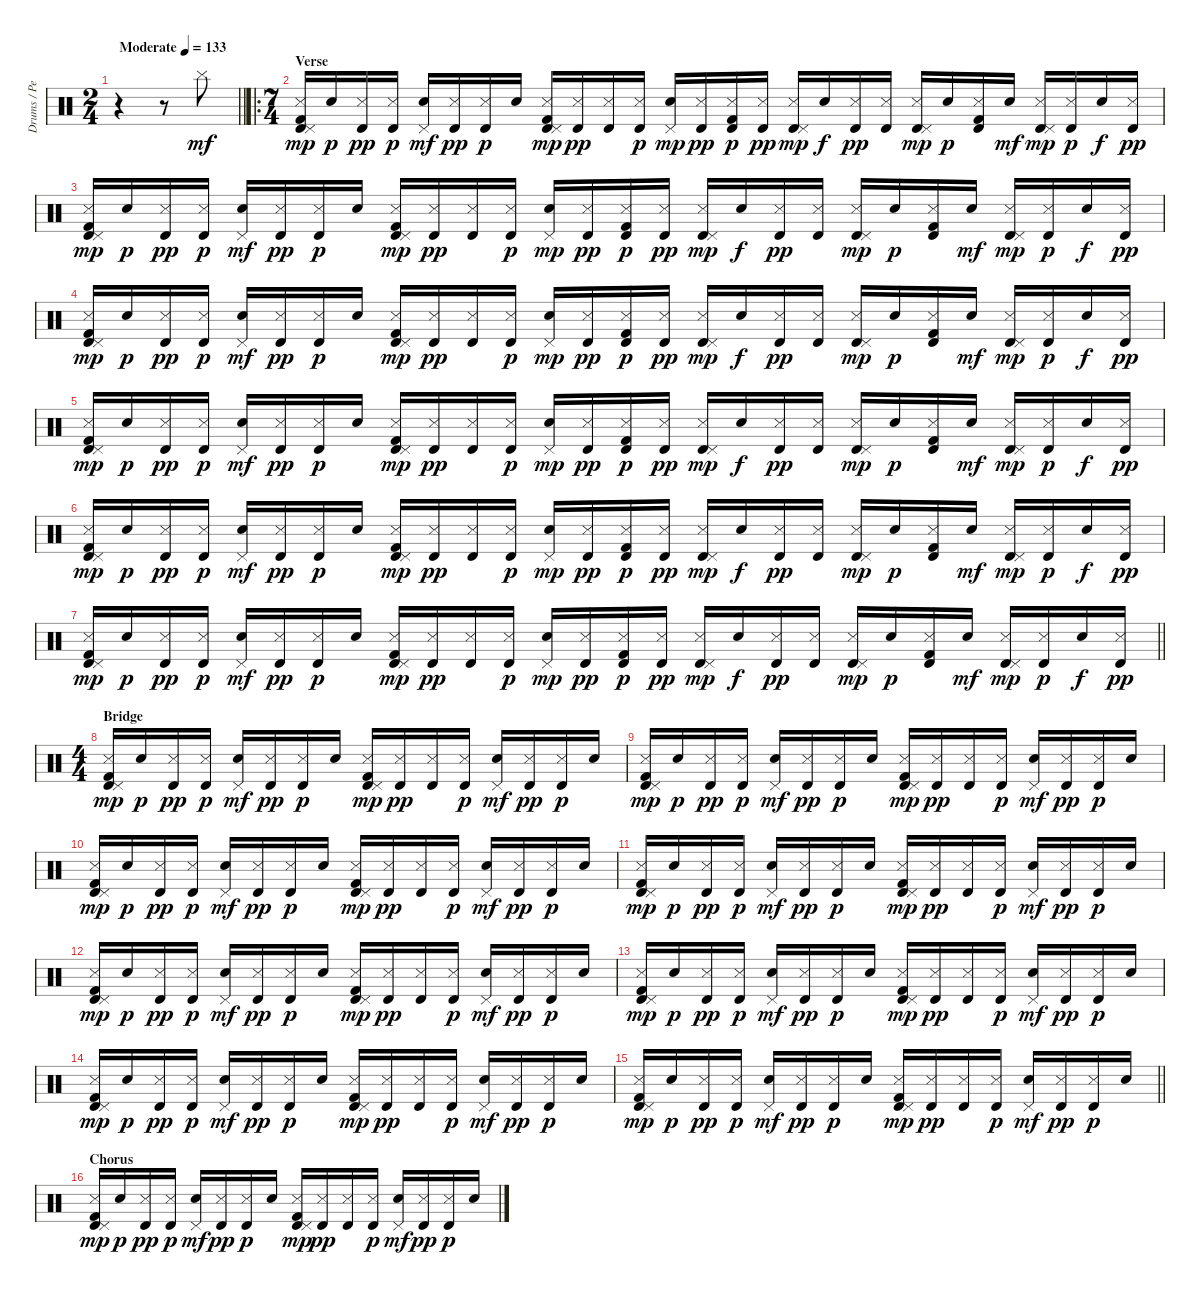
\track ("Drums / Percussions" "Drums / Pe") {instrument percussion}
\staff {score}
\articulation defaults
\ts (2 4)
\tempo (133 "Moderate")
\clef neutral
\barLineRight lightlight
\ks c
r.4{dy mf} r.8 "Cymbal (hit)".8 |
\ro
\ts (7 4)
\section ("" "Verse")
("Snare (side stick) 3" "Timbale high (hit)" "Pedal Hi-Hat (hit)" "Kick (hit) 2").16{dy mp} "Electric Snare (hit)".16{dy p} ("Snare (side stick) 3" "Timbale high (hit)").16{dy pp} ("Snare (side stick) 3" "Timbale high (hit)").16{dy p} ("Pedal Hi-Hat (hit)" "Electric Snare (hit)").16{dy mf} ("Snare (side stick) 3" "Timbale high (hit)").16{dy pp} ("Snare (side stick) 3" "Timbale high (hit)").16{dy p} "Electric Snare (hit)".16 ("Snare (side stick) 3" "Timbale high (hit)" "Pedal Hi-Hat (hit)" "Kick (hit) 2").16{dy mp} ("Snare (side stick) 3" "Timbale high (hit)").16{dy pp} ("Snare (side stick) 3" "Timbale high (hit)").16 ("Snare (side stick) 3" "Timbale high (hit)").16{dy p} ("Pedal Hi-Hat (hit)" "Electric Snare (hit)").16{dy mp} ("Snare (side stick) 3" "Timbale high (hit)").16{dy pp} ("Snare (side stick) 3" "Timbale high (hit)" "Kick (hit) 2").16{dy p} ("Snare (side stick) 3" "Timbale high (hit)").16{dy pp} ("Snare (side stick) 3" "Timbale high (hit)" "Pedal Hi-Hat (hit)").16{dy mp} "Electric Snare (hit)".16{dy f} ("Snare (side stick) 3" "Timbale high (hit)").16{dy pp} ("Snare (side stick) 3" "Timbale high (hit)").16 ("Snare (side stick) 3" "Timbale high (hit)" "Pedal Hi-Hat (hit)").16{dy mp} "Electric Snare (hit)".16{dy p} ("Snare (side stick) 3" "Timbale high (hit)" "Kick (hit) 2").16 "Electric Snare (hit)".16{dy mf} ("Snare (side stick) 3" "Timbale high (hit)" "Pedal Hi-Hat (hit)").16{dy mp} ("Snare (side stick) 3" "Timbale high (hit)").16{dy p} "Electric Snare (hit)".16{dy f} ("Snare (side stick) 3" "Timbale high (hit)").16{dy pp} |
("Snare (side stick) 3" "Timbale high (hit)" "Pedal Hi-Hat (hit)" "Kick (hit) 2").16{dy mp} "Electric Snare (hit)".16{dy p} ("Snare (side stick) 3" "Timbale high (hit)").16{dy pp} ("Snare (side stick) 3" "Timbale high (hit)").16{dy p} ("Pedal Hi-Hat (hit)" "Electric Snare (hit)").16{dy mf} ("Snare (side stick) 3" "Timbale high (hit)").16{dy pp} ("Snare (side stick) 3" "Timbale high (hit)").16{dy p} "Electric Snare (hit)".16 ("Snare (side stick) 3" "Timbale high (hit)" "Pedal Hi-Hat (hit)" "Kick (hit) 2").16{dy mp} ("Snare (side stick) 3" "Timbale high (hit)").16{dy pp} ("Snare (side stick) 3" "Timbale high (hit)").16 ("Snare (side stick) 3" "Timbale high (hit)").16{dy p} ("Pedal Hi-Hat (hit)" "Electric Snare (hit)").16{dy mp} ("Snare (side stick) 3" "Timbale high (hit)").16{dy pp} ("Snare (side stick) 3" "Timbale high (hit)" "Kick (hit) 2").16{dy p} ("Snare (side stick) 3" "Timbale high (hit)").16{dy pp} ("Snare (side stick) 3" "Timbale high (hit)" "Pedal Hi-Hat (hit)").16{dy mp} "Electric Snare (hit)".16{dy f} ("Snare (side stick) 3" "Timbale high (hit)").16{dy pp} ("Snare (side stick) 3" "Timbale high (hit)").16 ("Snare (side stick) 3" "Timbale high (hit)" "Pedal Hi-Hat (hit)").16{dy mp} "Electric Snare (hit)".16{dy p} ("Snare (side stick) 3" "Timbale high (hit)" "Kick (hit) 2").16 "Electric Snare (hit)".16{dy mf} ("Snare (side stick) 3" "Timbale high (hit)" "Pedal Hi-Hat (hit)").16{dy mp} ("Snare (side stick) 3" "Timbale high (hit)").16{dy p} "Electric Snare (hit)".16{dy f} ("Snare (side stick) 3" "Timbale high (hit)").16{dy pp} |
("Snare (side stick) 3" "Timbale high (hit)" "Pedal Hi-Hat (hit)" "Kick (hit) 2").16{dy mp} "Electric Snare (hit)".16{dy p} ("Snare (side stick) 3" "Timbale high (hit)").16{dy pp} ("Snare (side stick) 3" "Timbale high (hit)").16{dy p} ("Pedal Hi-Hat (hit)" "Electric Snare (hit)").16{dy mf} ("Snare (side stick) 3" "Timbale high (hit)").16{dy pp} ("Snare (side stick) 3" "Timbale high (hit)").16{dy p} "Electric Snare (hit)".16 ("Snare (side stick) 3" "Timbale high (hit)" "Pedal Hi-Hat (hit)" "Kick (hit) 2").16{dy mp} ("Snare (side stick) 3" "Timbale high (hit)").16{dy pp} ("Snare (side stick) 3" "Timbale high (hit)").16 ("Snare (side stick) 3" "Timbale high (hit)").16{dy p} ("Pedal Hi-Hat (hit)" "Electric Snare (hit)").16{dy mp} ("Snare (side stick) 3" "Timbale high (hit)").16{dy pp} ("Snare (side stick) 3" "Timbale high (hit)" "Kick (hit) 2").16{dy p} ("Snare (side stick) 3" "Timbale high (hit)").16{dy pp} ("Snare (side stick) 3" "Timbale high (hit)" "Pedal Hi-Hat (hit)").16{dy mp} "Electric Snare (hit)".16{dy f} ("Snare (side stick) 3" "Timbale high (hit)").16{dy pp} ("Snare (side stick) 3" "Timbale high (hit)").16 ("Snare (side stick) 3" "Timbale high (hit)" "Pedal Hi-Hat (hit)").16{dy mp} "Electric Snare (hit)".16{dy p} ("Snare (side stick) 3" "Timbale high (hit)" "Kick (hit) 2").16 "Electric Snare (hit)".16{dy mf} ("Snare (side stick) 3" "Timbale high (hit)" "Pedal Hi-Hat (hit)").16{dy mp} ("Snare (side stick) 3" "Timbale high (hit)").16{dy p} "Electric Snare (hit)".16{dy f} ("Snare (side stick) 3" "Timbale high (hit)").16{dy pp} |
("Snare (side stick) 3" "Timbale high (hit)" "Pedal Hi-Hat (hit)" "Kick (hit) 2").16{dy mp} "Electric Snare (hit)".16{dy p} ("Snare (side stick) 3" "Timbale high (hit)").16{dy pp} ("Snare (side stick) 3" "Timbale high (hit)").16{dy p} ("Pedal Hi-Hat (hit)" "Electric Snare (hit)").16{dy mf} ("Snare (side stick) 3" "Timbale high (hit)").16{dy pp} ("Snare (side stick) 3" "Timbale high (hit)").16{dy p} "Electric Snare (hit)".16 ("Snare (side stick) 3" "Timbale high (hit)" "Pedal Hi-Hat (hit)" "Kick (hit) 2").16{dy mp} ("Snare (side stick) 3" "Timbale high (hit)").16{dy pp} ("Snare (side stick) 3" "Timbale high (hit)").16 ("Snare (side stick) 3" "Timbale high (hit)").16{dy p} ("Pedal Hi-Hat (hit)" "Electric Snare (hit)").16{dy mp} ("Snare (side stick) 3" "Timbale high (hit)").16{dy pp} ("Snare (side stick) 3" "Timbale high (hit)" "Kick (hit) 2").16{dy p} ("Snare (side stick) 3" "Timbale high (hit)").16{dy pp} ("Snare (side stick) 3" "Timbale high (hit)" "Pedal Hi-Hat (hit)").16{dy mp} "Electric Snare (hit)".16{dy f} ("Snare (side stick) 3" "Timbale high (hit)").16{dy pp} ("Snare (side stick) 3" "Timbale high (hit)").16 ("Snare (side stick) 3" "Timbale high (hit)" "Pedal Hi-Hat (hit)").16{dy mp} "Electric Snare (hit)".16{dy p} ("Snare (side stick) 3" "Timbale high (hit)" "Kick (hit) 2").16 "Electric Snare (hit)".16{dy mf} ("Snare (side stick) 3" "Timbale high (hit)" "Pedal Hi-Hat (hit)").16{dy mp} ("Snare (side stick) 3" "Timbale high (hit)").16{dy p} "Electric Snare (hit)".16{dy f} ("Snare (side stick) 3" "Timbale high (hit)").16{dy pp} |
("Snare (side stick) 3" "Timbale high (hit)" "Pedal Hi-Hat (hit)" "Kick (hit) 2").16{dy mp} "Electric Snare (hit)".16{dy p} ("Snare (side stick) 3" "Timbale high (hit)").16{dy pp} ("Snare (side stick) 3" "Timbale high (hit)").16{dy p} ("Pedal Hi-Hat (hit)" "Electric Snare (hit)").16{dy mf} ("Snare (side stick) 3" "Timbale high (hit)").16{dy pp} ("Snare (side stick) 3" "Timbale high (hit)").16{dy p} "Electric Snare (hit)".16 ("Snare (side stick) 3" "Timbale high (hit)" "Pedal Hi-Hat (hit)" "Kick (hit) 2").16{dy mp} ("Snare (side stick) 3" "Timbale high (hit)").16{dy pp} ("Snare (side stick) 3" "Timbale high (hit)").16 ("Snare (side stick) 3" "Timbale high (hit)").16{dy p} ("Pedal Hi-Hat (hit)" "Electric Snare (hit)").16{dy mp} ("Snare (side stick) 3" "Timbale high (hit)").16{dy pp} ("Snare (side stick) 3" "Timbale high (hit)" "Kick (hit) 2").16{dy p} ("Snare (side stick) 3" "Timbale high (hit)").16{dy pp} ("Snare (side stick) 3" "Timbale high (hit)" "Pedal Hi-Hat (hit)").16{dy mp} "Electric Snare (hit)".16{dy f} ("Snare (side stick) 3" "Timbale high (hit)").16{dy pp} ("Snare (side stick) 3" "Timbale high (hit)").16 ("Snare (side stick) 3" "Timbale high (hit)" "Pedal Hi-Hat (hit)").16{dy mp} "Electric Snare (hit)".16{dy p} ("Snare (side stick) 3" "Timbale high (hit)" "Kick (hit) 2").16 "Electric Snare (hit)".16{dy mf} ("Snare (side stick) 3" "Timbale high (hit)" "Pedal Hi-Hat (hit)").16{dy mp} ("Snare (side stick) 3" "Timbale high (hit)").16{dy p} "Electric Snare (hit)".16{dy f} ("Snare (side stick) 3" "Timbale high (hit)").16{dy pp} |
\barLineRight lightlight
("Snare (side stick) 3" "Timbale high (hit)" "Pedal Hi-Hat (hit)" "Kick (hit) 2").16{dy mp} "Electric Snare (hit)".16{dy p} ("Snare (side stick) 3" "Timbale high (hit)").16{dy pp} ("Snare (side stick) 3" "Timbale high (hit)").16{dy p} ("Pedal Hi-Hat (hit)" "Electric Snare (hit)").16{dy mf} ("Snare (side stick) 3" "Timbale high (hit)").16{dy pp} ("Snare (side stick) 3" "Timbale high (hit)").16{dy p} "Electric Snare (hit)".16 ("Snare (side stick) 3" "Timbale high (hit)" "Pedal Hi-Hat (hit)" "Kick (hit) 2").16{dy mp} ("Snare (side stick) 3" "Timbale high (hit)").16{dy pp} ("Snare (side stick) 3" "Timbale high (hit)").16 ("Snare (side stick) 3" "Timbale high (hit)").16{dy p} ("Pedal Hi-Hat (hit)" "Electric Snare (hit)").16{dy mp} ("Snare (side stick) 3" "Timbale high (hit)").16{dy pp} ("Snare (side stick) 3" "Timbale high (hit)" "Kick (hit) 2").16{dy p} ("Snare (side stick) 3" "Timbale high (hit)").16{dy pp} ("Snare (side stick) 3" "Timbale high (hit)" "Pedal Hi-Hat (hit)").16{dy mp} "Electric Snare (hit)".16{dy f} ("Snare (side stick) 3" "Timbale high (hit)").16{dy pp} ("Snare (side stick) 3" "Timbale high (hit)").16 ("Snare (side stick) 3" "Timbale high (hit)" "Pedal Hi-Hat (hit)").16{dy mp} "Electric Snare (hit)".16{dy p} ("Snare (side stick) 3" "Timbale high (hit)" "Kick (hit) 2").16 "Electric Snare (hit)".16{dy mf} ("Snare (side stick) 3" "Timbale high (hit)" "Pedal Hi-Hat (hit)").16{dy mp} ("Snare (side stick) 3" "Timbale high (hit)").16{dy p} "Electric Snare (hit)".16{dy f} ("Snare (side stick) 3" "Timbale high (hit)").16{dy pp} |
\ts (4 4)
\section ("" "Bridge")
("Snare (side stick) 3" "Timbale high (hit)" "Pedal Hi-Hat (hit)" "Kick (hit) 2").16{dy mp} "Electric Snare (hit)".16{dy p} ("Snare (side stick) 3" "Timbale high (hit)").16{dy pp} ("Snare (side stick) 3" "Timbale high (hit)").16{dy p} ("Pedal Hi-Hat (hit)" "Electric Snare (hit)").16{dy mf} ("Snare (side stick) 3" "Timbale high (hit)").16{dy pp} ("Snare (side stick) 3" "Timbale high (hit)").16{dy p} "Electric Snare (hit)".16 ("Snare (side stick) 3" "Timbale high (hit)" "Pedal Hi-Hat (hit)" "Kick (hit) 2").16{dy mp} ("Snare (side stick) 3" "Timbale high (hit)").16{dy pp} ("Snare (side stick) 3" "Timbale high (hit)").16 ("Snare (side stick) 3" "Timbale high (hit)").16{dy p} ("Pedal Hi-Hat (hit)" "Electric Snare (hit)").16{dy mf} ("Snare (side stick) 3" "Timbale high (hit)").16{dy pp} ("Snare (side stick) 3" "Timbale high (hit)").16{dy p} "Electric Snare (hit)".16 |
("Snare (side stick) 3" "Timbale high (hit)" "Pedal Hi-Hat (hit)" "Kick (hit) 2").16{dy mp} "Electric Snare (hit)".16{dy p} ("Snare (side stick) 3" "Timbale high (hit)").16{dy pp} ("Snare (side stick) 3" "Timbale high (hit)").16{dy p} ("Pedal Hi-Hat (hit)" "Electric Snare (hit)").16{dy mf} ("Snare (side stick) 3" "Timbale high (hit)").16{dy pp} ("Snare (side stick) 3" "Timbale high (hit)").16{dy p} "Electric Snare (hit)".16 ("Snare (side stick) 3" "Timbale high (hit)" "Pedal Hi-Hat (hit)" "Kick (hit) 2").16{dy mp} ("Snare (side stick) 3" "Timbale high (hit)").16{dy pp} ("Snare (side stick) 3" "Timbale high (hit)").16 ("Snare (side stick) 3" "Timbale high (hit)").16{dy p} ("Pedal Hi-Hat (hit)" "Electric Snare (hit)").16{dy mf} ("Snare (side stick) 3" "Timbale high (hit)").16{dy pp} ("Snare (side stick) 3" "Timbale high (hit)").16{dy p} "Electric Snare (hit)".16 |
("Snare (side stick) 3" "Timbale high (hit)" "Pedal Hi-Hat (hit)" "Kick (hit) 2").16{dy mp} "Electric Snare (hit)".16{dy p} ("Snare (side stick) 3" "Timbale high (hit)").16{dy pp} ("Snare (side stick) 3" "Timbale high (hit)").16{dy p} ("Pedal Hi-Hat (hit)" "Electric Snare (hit)").16{dy mf} ("Snare (side stick) 3" "Timbale high (hit)").16{dy pp} ("Snare (side stick) 3" "Timbale high (hit)").16{dy p} "Electric Snare (hit)".16 ("Snare (side stick) 3" "Timbale high (hit)" "Pedal Hi-Hat (hit)" "Kick (hit) 2").16{dy mp} ("Snare (side stick) 3" "Timbale high (hit)").16{dy pp} ("Snare (side stick) 3" "Timbale high (hit)").16 ("Snare (side stick) 3" "Timbale high (hit)").16{dy p} ("Pedal Hi-Hat (hit)" "Electric Snare (hit)").16{dy mf} ("Snare (side stick) 3" "Timbale high (hit)").16{dy pp} ("Snare (side stick) 3" "Timbale high (hit)").16{dy p} "Electric Snare (hit)".16 |
("Snare (side stick) 3" "Timbale high (hit)" "Pedal Hi-Hat (hit)" "Kick (hit) 2").16{dy mp} "Electric Snare (hit)".16{dy p} ("Snare (side stick) 3" "Timbale high (hit)").16{dy pp} ("Snare (side stick) 3" "Timbale high (hit)").16{dy p} ("Pedal Hi-Hat (hit)" "Electric Snare (hit)").16{dy mf} ("Snare (side stick) 3" "Timbale high (hit)").16{dy pp} ("Snare (side stick) 3" "Timbale high (hit)").16{dy p} "Electric Snare (hit)".16 ("Snare (side stick) 3" "Timbale high (hit)" "Pedal Hi-Hat (hit)" "Kick (hit) 2").16{dy mp} ("Snare (side stick) 3" "Timbale high (hit)").16{dy pp} ("Snare (side stick) 3" "Timbale high (hit)").16 ("Snare (side stick) 3" "Timbale high (hit)").16{dy p} ("Pedal Hi-Hat (hit)" "Electric Snare (hit)").16{dy mf} ("Snare (side stick) 3" "Timbale high (hit)").16{dy pp} ("Snare (side stick) 3" "Timbale high (hit)").16{dy p} "Electric Snare (hit)".16 |
("Snare (side stick) 3" "Timbale high (hit)" "Pedal Hi-Hat (hit)" "Kick (hit) 2").16{dy mp} "Electric Snare (hit)".16{dy p} ("Snare (side stick) 3" "Timbale high (hit)").16{dy pp} ("Snare (side stick) 3" "Timbale high (hit)").16{dy p} ("Pedal Hi-Hat (hit)" "Electric Snare (hit)").16{dy mf} ("Snare (side stick) 3" "Timbale high (hit)").16{dy pp} ("Snare (side stick) 3" "Timbale high (hit)").16{dy p} "Electric Snare (hit)".16 ("Snare (side stick) 3" "Timbale high (hit)" "Pedal Hi-Hat (hit)" "Kick (hit) 2").16{dy mp} ("Snare (side stick) 3" "Timbale high (hit)").16{dy pp} ("Snare (side stick) 3" "Timbale high (hit)").16 ("Snare (side stick) 3" "Timbale high (hit)").16{dy p} ("Pedal Hi-Hat (hit)" "Electric Snare (hit)").16{dy mf} ("Snare (side stick) 3" "Timbale high (hit)").16{dy pp} ("Snare (side stick) 3" "Timbale high (hit)").16{dy p} "Electric Snare (hit)".16 |
("Snare (side stick) 3" "Timbale high (hit)" "Pedal Hi-Hat (hit)" "Kick (hit) 2").16{dy mp} "Electric Snare (hit)".16{dy p} ("Snare (side stick) 3" "Timbale high (hit)").16{dy pp} ("Snare (side stick) 3" "Timbale high (hit)").16{dy p} ("Pedal Hi-Hat (hit)" "Electric Snare (hit)").16{dy mf} ("Snare (side stick) 3" "Timbale high (hit)").16{dy pp} ("Snare (side stick) 3" "Timbale high (hit)").16{dy p} "Electric Snare (hit)".16 ("Snare (side stick) 3" "Timbale high (hit)" "Pedal Hi-Hat (hit)" "Kick (hit) 2").16{dy mp} ("Snare (side stick) 3" "Timbale high (hit)").16{dy pp} ("Snare (side stick) 3" "Timbale high (hit)").16 ("Snare (side stick) 3" "Timbale high (hit)").16{dy p} ("Pedal Hi-Hat (hit)" "Electric Snare (hit)").16{dy mf} ("Snare (side stick) 3" "Timbale high (hit)").16{dy pp} ("Snare (side stick) 3" "Timbale high (hit)").16{dy p} "Electric Snare (hit)".16 |
("Snare (side stick) 3" "Timbale high (hit)" "Pedal Hi-Hat (hit)" "Kick (hit) 2").16{dy mp} "Electric Snare (hit)".16{dy p} ("Snare (side stick) 3" "Timbale high (hit)").16{dy pp} ("Snare (side stick) 3" "Timbale high (hit)").16{dy p} ("Pedal Hi-Hat (hit)" "Electric Snare (hit)").16{dy mf} ("Snare (side stick) 3" "Timbale high (hit)").16{dy pp} ("Snare (side stick) 3" "Timbale high (hit)").16{dy p} "Electric Snare (hit)".16 ("Snare (side stick) 3" "Timbale high (hit)" "Pedal Hi-Hat (hit)" "Kick (hit) 2").16{dy mp} ("Snare (side stick) 3" "Timbale high (hit)").16{dy pp} ("Snare (side stick) 3" "Timbale high (hit)").16 ("Snare (side stick) 3" "Timbale high (hit)").16{dy p} ("Pedal Hi-Hat (hit)" "Electric Snare (hit)").16{dy mf} ("Snare (side stick) 3" "Timbale high (hit)").16{dy pp} ("Snare (side stick) 3" "Timbale high (hit)").16{dy p} "Electric Snare (hit)".16 |
\barLineRight lightlight
("Snare (side stick) 3" "Timbale high (hit)" "Pedal Hi-Hat (hit)" "Kick (hit) 2").16{dy mp} "Electric Snare (hit)".16{dy p} ("Snare (side stick) 3" "Timbale high (hit)").16{dy pp} ("Snare (side stick) 3" "Timbale high (hit)").16{dy p} ("Pedal Hi-Hat (hit)" "Electric Snare (hit)").16{dy mf} ("Snare (side stick) 3" "Timbale high (hit)").16{dy pp} ("Snare (side stick) 3" "Timbale high (hit)").16{dy p} "Electric Snare (hit)".16 ("Snare (side stick) 3" "Timbale high (hit)" "Pedal Hi-Hat (hit)" "Kick (hit) 2").16{dy mp} ("Snare (side stick) 3" "Timbale high (hit)").16{dy pp} ("Snare (side stick) 3" "Timbale high (hit)").16 ("Snare (side stick) 3" "Timbale high (hit)").16{dy p} ("Pedal Hi-Hat (hit)" "Electric Snare (hit)").16{dy mf} ("Snare (side stick) 3" "Timbale high (hit)").16{dy pp} ("Snare (side stick) 3" "Timbale high (hit)").16{dy p} "Electric Snare (hit)".16 |
\section ("" "Chorus")
("Snare (side stick) 3" "Timbale high (hit)" "Pedal Hi-Hat (hit)" "Kick (hit) 2").16{dy mp} "Electric Snare (hit)".16{dy p} ("Snare (side stick) 3" "Timbale high (hit)").16{dy pp} ("Snare (side stick) 3" "Timbale high (hit)").16{dy p} ("Pedal Hi-Hat (hit)" "Electric Snare (hit)").16{dy mf} ("Snare (side stick) 3" "Timbale high (hit)").16{dy pp} ("Snare (side stick) 3" "Timbale high (hit)").16{dy p} "Electric Snare (hit)".16 ("Snare (side stick) 3" "Timbale high (hit)" "Pedal Hi-Hat (hit)" "Kick (hit) 2").16{dy mp} ("Snare (side stick) 3" "Timbale high (hit)").16{dy pp} ("Snare (side stick) 3" "Timbale high (hit)").16 ("Snare (side stick) 3" "Timbale high (hit)").16{dy p} ("Pedal Hi-Hat (hit)" "Electric Snare (hit)").16{dy mf} ("Snare (side stick) 3" "Timbale high (hit)").16{dy pp} ("Snare (side stick) 3" "Timbale high (hit)").16{dy p} "Electric Snare (hit)".16
